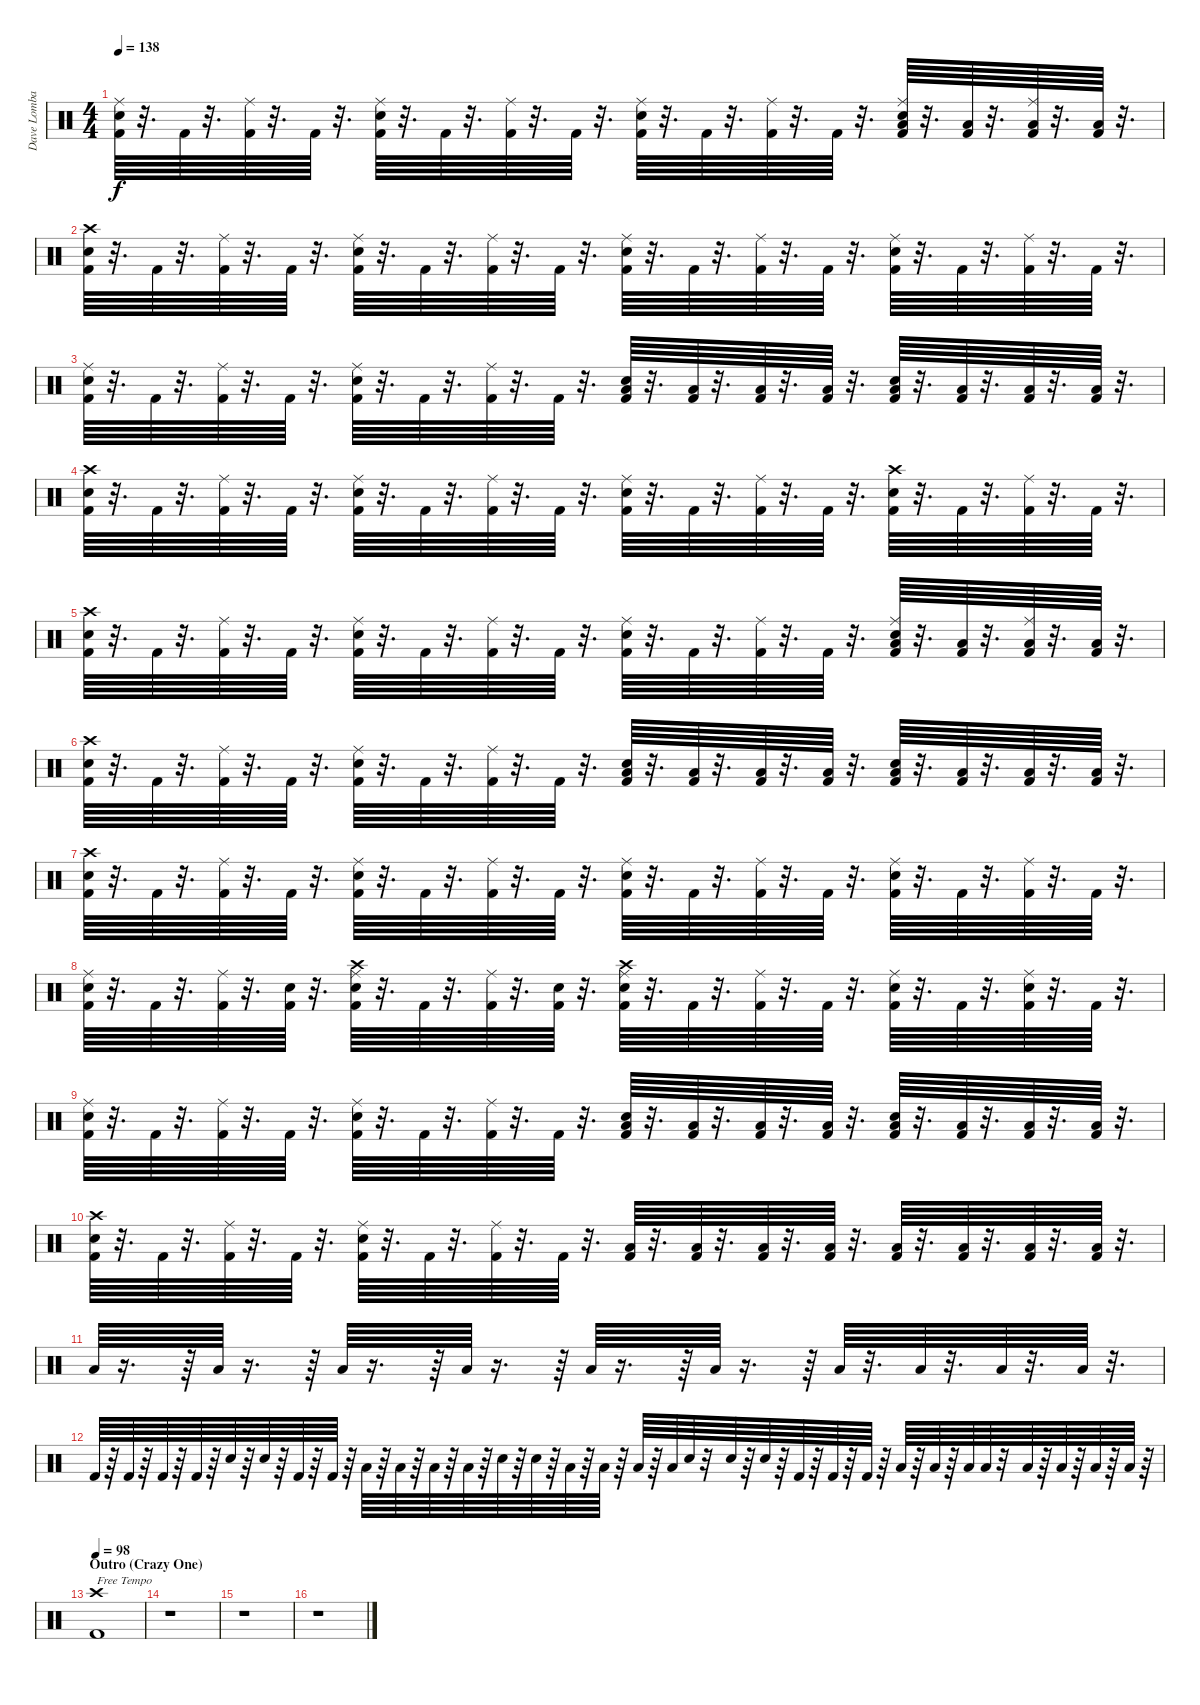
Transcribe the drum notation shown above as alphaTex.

\track ("Dave Lombardo" "Dave Lomba") {instrument percussion}
\staff {score}
\articulation defaults
\ts (4 4)
\tempo 138
\clef neutral
\ks c
("Kick (hit) 2" "Snare (hit) 2" "Ride (middle)").64{dy f} r.32{d} "Kick (hit) 2".64 r.32{d} ("Kick (hit) 2" "Ride (middle)").64 r.32{d} "Kick (hit) 2".64 r.32{d} ("Kick (hit) 2" "Snare (hit) 2" "Ride (middle)").64 r.32{d} "Kick (hit) 2".64 r.32{d} ("Kick (hit) 2" "Ride (middle)").64 r.32{d} "Kick (hit) 2".64 r.32{d} ("Kick (hit) 2" "Snare (hit) 2" "Ride (middle)").64 r.32{d} "Kick (hit) 2".64 r.32{d} ("Kick (hit) 2" "Ride (middle)").64 r.32{d} "Kick (hit) 2".64 r.32{d} ("Kick (hit) 2" "Snare (hit) 2" "Ride (middle)" "Low Tom (hit)").64 r.32{d} ("Kick (hit) 2" "Low Tom (hit)").64 r.32{d} ("Kick (hit) 2" "Ride (middle)" "Low Tom (hit)").64 r.32{d} ("Kick (hit) 2" "Low Tom (hit)").64 r.32{d} |
("Kick (hit) 2" "Snare (hit) 2" "Crash high (hit)").64 r.32{d} "Kick (hit) 2".64 r.32{d} ("Kick (hit) 2" "Ride (middle)").64 r.32{d} "Kick (hit) 2".64 r.32{d} ("Kick (hit) 2" "Snare (hit) 2" "Ride (middle)").64 r.32{d} "Kick (hit) 2".64 r.32{d} ("Kick (hit) 2" "Ride (middle)").64 r.32{d} "Kick (hit) 2".64 r.32{d} ("Kick (hit) 2" "Snare (hit) 2" "Ride (middle)").64 r.32{d} "Kick (hit) 2".64 r.32{d} ("Kick (hit) 2" "Ride (middle)").64 r.32{d} "Kick (hit) 2".64 r.32{d} ("Kick (hit) 2" "Snare (hit) 2" "Ride (middle)").64 r.32{d} "Kick (hit) 2".64 r.32{d} ("Kick (hit) 2" "Ride (middle)").64 r.32{d} "Kick (hit) 2".64 r.32{d} |
("Kick (hit) 2" "Snare (hit) 2" "Ride (middle)").64 r.32{d} "Kick (hit) 2".64 r.32{d} ("Kick (hit) 2" "Ride (middle)").64 r.32{d} "Kick (hit) 2".64 r.32{d} ("Kick (hit) 2" "Snare (hit) 2" "Ride (middle)").64 r.32{d} "Kick (hit) 2".64 r.32{d} ("Kick (hit) 2" "Ride (middle)").64 r.32{d} "Kick (hit) 2".64 r.32{d} ("Kick (hit) 2" "Snare (hit) 2" "Low Tom (hit)").64 r.32{d} ("Kick (hit) 2" "Low Tom (hit)").64 r.32{d} ("Kick (hit) 2" "Low Tom (hit)").64 r.32{d} ("Kick (hit) 2" "Low Tom (hit)").64 r.32{d} ("Kick (hit) 2" "Low Tom (hit)" "Snare (hit) 2").64 r.32{d} ("Kick (hit) 2" "Low Tom (hit)").64 r.32{d} ("Kick (hit) 2" "Low Tom (hit)").64 r.32{d} ("Kick (hit) 2" "Low Tom (hit)").64 r.32{d} |
("Kick (hit) 2" "Snare (hit) 2" "Crash high (hit)").64 r.32{d} "Kick (hit) 2".64 r.32{d} ("Kick (hit) 2" "Ride (middle)").64 r.32{d} "Kick (hit) 2".64 r.32{d} ("Kick (hit) 2" "Snare (hit) 2" "Ride (middle)").64 r.32{d} "Kick (hit) 2".64 r.32{d} ("Kick (hit) 2" "Ride (middle)").64 r.32{d} "Kick (hit) 2".64 r.32{d} ("Kick (hit) 2" "Snare (hit) 2" "Ride (middle)").64 r.32{d} "Kick (hit) 2".64 r.32{d} ("Kick (hit) 2" "Ride (middle)").64 r.32{d} "Kick (hit) 2".64 r.32{d} ("Kick (hit) 2" "Snare (hit) 2" "Crash high (hit)").64 r.32{d} "Kick (hit) 2".64 r.32{d} ("Kick (hit) 2" "Ride (middle)").64 r.32{d} "Kick (hit) 2".64 r.32{d} |
("Kick (hit) 2" "Snare (hit) 2" "Crash high (hit)").64 r.32{d} "Kick (hit) 2".64 r.32{d} ("Kick (hit) 2" "Ride (middle)").64 r.32{d} "Kick (hit) 2".64 r.32{d} ("Kick (hit) 2" "Snare (hit) 2" "Ride (middle)").64 r.32{d} "Kick (hit) 2".64 r.32{d} ("Kick (hit) 2" "Ride (middle)").64 r.32{d} "Kick (hit) 2".64 r.32{d} ("Kick (hit) 2" "Snare (hit) 2" "Ride (middle)").64 r.32{d} "Kick (hit) 2".64 r.32{d} ("Kick (hit) 2" "Ride (middle)").64 r.32{d} "Kick (hit) 2".64 r.32{d} ("Kick (hit) 2" "Snare (hit) 2" "Ride (middle)" "Low Tom (hit)").64 r.32{d} ("Kick (hit) 2" "Low Tom (hit)").64 r.32{d} ("Kick (hit) 2" "Ride (middle)" "Low Tom (hit)").64 r.32{d} ("Kick (hit) 2" "Low Tom (hit)").64 r.32{d} |
("Kick (hit) 2" "Snare (hit) 2" "Crash high (hit)").64 r.32{d} "Kick (hit) 2".64 r.32{d} ("Kick (hit) 2" "Ride (middle)").64 r.32{d} "Kick (hit) 2".64 r.32{d} ("Kick (hit) 2" "Snare (hit) 2" "Ride (middle)").64 r.32{d} "Kick (hit) 2".64 r.32{d} ("Kick (hit) 2" "Ride (middle)").64 r.32{d} "Kick (hit) 2".64 r.32{d} ("Kick (hit) 2" "Snare (hit) 2" "Low Tom (hit)").64 r.32{d} ("Kick (hit) 2" "Low Tom (hit)").64 r.32{d} ("Kick (hit) 2" "Low Tom (hit)").64 r.32{d} ("Kick (hit) 2" "Low Tom (hit)").64 r.32{d} ("Kick (hit) 2" "Snare (hit) 2" "Low Tom (hit)").64 r.32{d} ("Kick (hit) 2" "Low Tom (hit)").64 r.32{d} ("Kick (hit) 2" "Low Tom (hit)").64 r.32{d} ("Kick (hit) 2" "Low Tom (hit)").64 r.32{d} |
("Kick (hit) 2" "Snare (hit) 2" "Crash high (hit)").64 r.32{d} "Kick (hit) 2".64 r.32{d} ("Kick (hit) 2" "Ride (middle)").64 r.32{d} "Kick (hit) 2".64 r.32{d} ("Kick (hit) 2" "Snare (hit) 2" "Ride (middle)").64 r.32{d} "Kick (hit) 2".64 r.32{d} ("Kick (hit) 2" "Ride (middle)").64 r.32{d} "Kick (hit) 2".64 r.32{d} ("Kick (hit) 2" "Snare (hit) 2" "Ride (middle)").64 r.32{d} "Kick (hit) 2".64 r.32{d} ("Kick (hit) 2" "Ride (middle)").64 r.32{d} "Kick (hit) 2".64 r.32{d} ("Kick (hit) 2" "Snare (hit) 2" "Ride (middle)").64 r.32{d} "Kick (hit) 2".64 r.32{d} ("Kick (hit) 2" "Ride (middle)").64 r.32{d} "Kick (hit) 2".64 r.32{d} |
("Kick (hit) 2" "Snare (hit) 2" "Ride (middle)").64 r.32{d} "Kick (hit) 2".64 r.32{d} ("Kick (hit) 2" "Ride (middle)").64 r.32{d} ("Kick (hit) 2" "Snare (hit) 2").64 r.32{d} ("Kick (hit) 2" "Ride (middle)" "Crash high (hit)" "Snare (hit) 2").64 r.32{d} "Kick (hit) 2".64 r.32{d} ("Kick (hit) 2" "Ride (middle)").64 r.32{d} ("Kick (hit) 2" "Snare (hit) 2").64 r.32{d} ("Kick (hit) 2" "Ride (middle)" "Crash high (hit)" "Snare (hit) 2").64 r.32{d} "Kick (hit) 2".64 r.32{d} ("Kick (hit) 2" "Ride (middle)").64 r.32{d} "Kick (hit) 2".64 r.32{d} ("Kick (hit) 2" "Snare (hit) 2" "Ride (middle)").64 r.32{d} "Kick (hit) 2".64 r.32{d} ("Kick (hit) 2" "Ride (middle)" "Snare (hit) 2").64 r.32{d} "Kick (hit) 2".64 r.32{d} |
("Kick (hit) 2" "Snare (hit) 2" "Ride (middle)").64 r.32{d} "Kick (hit) 2".64 r.32{d} ("Kick (hit) 2" "Ride (middle)").64 r.32{d} "Kick (hit) 2".64 r.32{d} ("Kick (hit) 2" "Snare (hit) 2" "Ride (middle)").64 r.32{d} "Kick (hit) 2".64 r.32{d} ("Kick (hit) 2" "Ride (middle)").64 r.32{d} "Kick (hit) 2".64 r.32{d} ("Kick (hit) 2" "Snare (hit) 2" "Low Tom (hit)").64 r.32{d} ("Kick (hit) 2" "Low Tom (hit)").64 r.32{d} ("Kick (hit) 2" "Low Tom (hit)").64 r.32{d} ("Kick (hit) 2" "Low Tom (hit)").64 r.32{d} ("Kick (hit) 2" "Snare (hit) 2" "Low Tom (hit)").64 r.32{d} ("Kick (hit) 2" "Low Tom (hit)").64 r.32{d} ("Kick (hit) 2" "Low Tom (hit)").64 r.32{d} ("Kick (hit) 2" "Low Tom (hit)").64 r.32{d} |
("Kick (hit) 2" "Snare (hit) 2" "Crash high (hit)").64 r.32{d} "Kick (hit) 2".64 r.32{d} ("Kick (hit) 2" "Ride (middle)").64 r.32{d} "Kick (hit) 2".64 r.32{d} ("Kick (hit) 2" "Snare (hit) 2" "Ride (middle)").64 r.32{d} "Kick (hit) 2".64 r.32{d} ("Kick (hit) 2" "Ride (middle)").64 r.32{d} "Kick (hit) 2".64 r.32{d} ("Kick (hit) 2" "Low Tom (hit)").64 r.32{d} ("Kick (hit) 2" "Low Tom (hit)").64 r.32{d} ("Kick (hit) 2" "Low Tom (hit)").64 r.32{d} ("Kick (hit) 2" "Low Tom (hit)").64 r.32{d} ("Kick (hit) 2" "Low Tom (hit)").64 r.32{d} ("Kick (hit) 2" "Low Tom (hit)").64 r.32{d} ("Kick (hit) 2" "Low Tom (hit)").64 r.32{d} ("Kick (hit) 2" "Low Tom (hit)").64 r.32{d} |
"Low Tom (hit)".64 r.16{d} r.64 "Low Tom (hit)".64 r.16{d} r.64 "Low Tom (hit)".64 r.16{d} r.64 "Low Tom (hit)".64 r.16{d} r.64 "Low Tom (hit)".64 r.16{d} r.64 "Low Tom (hit)".64 r.16{d} r.64 "Low Tom (hit)".64 r.32{d} "Low Tom (hit)".64 r.32{d} "Low Tom (hit)".64 r.32{d} "Low Tom (hit)".64 r.32{d} |
"Kick (hit) 2".64 r.64 "Kick (hit) 2".64 r.64 "Kick (hit) 2".64 r.64 "Kick (hit) 2".64 r.64 "Snare (hit) 2".64 r.64 "Snare (hit) 2".64 r.64 "Kick (hit) 2".64 r.64 "Kick (hit) 2".64 r.64 "Low Floor Tom (hit)".64 r.64 "Low Floor Tom (hit)".64 r.64 "Low Floor Tom (hit)".64 r.64 "Low Floor Tom (hit)".64 r.64 "Snare (hit) 2".64 r.64 "Snare (hit) 2".64 r.64 "Low Tom (hit)".64 r.64 "Low Tom (hit)".64 r.64 "Low Tom (hit)".64 r.64 "Low Tom (hit)".64 "Snare (hit) 2".64 r.32 "Snare (hit) 2".64 r.64 "Snare (hit) 2".64 r.64 "Kick (hit) 2".64 r.64 "Kick (hit) 2".64 r.64 "Kick (hit) 2".64 r.64 "Low Tom (hit)".64 r.64 "Low Tom (hit)".64 r.64 "Low Tom (hit)".64 "Low Floor Tom (hit)".64 r.32 "Low Floor Tom (hit)".64 r.64 "Low Floor Tom (hit)".64 r.64 "Low Floor Tom (hit)".64 r.64 "Low Floor Tom (hit)".64 r.64 |
\section ("" "Outro (Crazy One)")
\tempo 98
("Kick (hit) 2" "Crash high (hit)").1{txt "Free Tempo"} |
r.1 |
r.1 |
r.1
